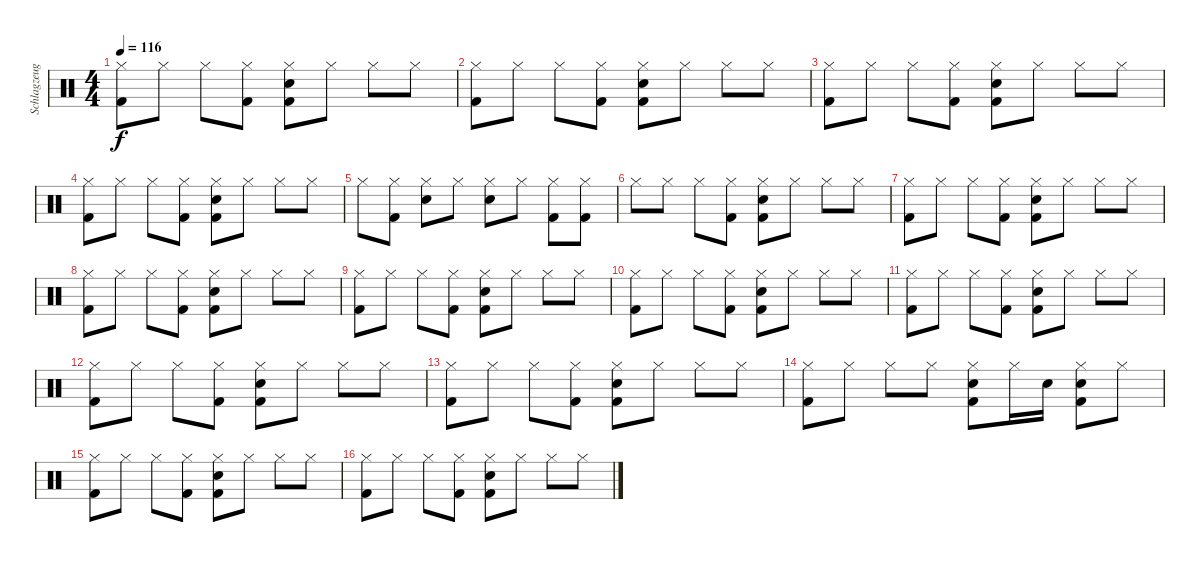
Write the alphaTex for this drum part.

\track ("Schlagzeug" "Schlagzeug") {instrument percussion}
\staff {score}
\articulation defaults
\ts (4 4)
\tempo 116
\clef neutral
\ks c
("Hi-Hat (closed)" "Kick (hit) 2").8{dy f} "Hi-Hat (closed)".8 "Hi-Hat (closed)".8 ("Hi-Hat (closed)" "Kick (hit) 2").8 ("Snare (hit) 2" "Hi-Hat (closed)" "Kick (hit) 2").8 "Hi-Hat (closed)".8 "Hi-Hat (closed)".8 "Hi-Hat (closed)".8 |
("Hi-Hat (closed)" "Kick (hit) 2").8 "Hi-Hat (closed)".8 "Hi-Hat (closed)".8 ("Hi-Hat (closed)" "Kick (hit) 2").8 ("Snare (hit) 2" "Hi-Hat (closed)" "Kick (hit) 2").8 "Hi-Hat (closed)".8 "Hi-Hat (closed)".8 "Hi-Hat (closed)".8 |
("Hi-Hat (closed)" "Kick (hit) 2").8 "Hi-Hat (closed)".8 "Hi-Hat (closed)".8 ("Hi-Hat (closed)" "Kick (hit) 2").8 ("Snare (hit) 2" "Hi-Hat (closed)" "Kick (hit) 2").8 "Hi-Hat (closed)".8 "Hi-Hat (closed)".8 "Hi-Hat (closed)".8 |
("Hi-Hat (closed)" "Kick (hit) 2").8 "Hi-Hat (closed)".8 "Hi-Hat (closed)".8 ("Hi-Hat (closed)" "Kick (hit) 2").8 ("Snare (hit) 2" "Hi-Hat (closed)" "Kick (hit) 2").8 "Hi-Hat (closed)".8 "Hi-Hat (closed)".8 "Hi-Hat (closed)".8 |
"Hi-Hat (closed)".8 ("Hi-Hat (closed)" "Kick (hit) 2").8 ("Snare (hit) 2" "Hi-Hat (closed)").8 "Hi-Hat (closed)".8 ("Snare (hit) 2" "Hi-Hat (closed)").8 "Hi-Hat (closed)".8 ("Hi-Hat (closed)" "Kick (hit) 2").8 ("Hi-Hat (closed)" "Kick (hit) 2").8 |
"Hi-Hat (closed)".8 "Hi-Hat (closed)".8 "Hi-Hat (closed)".8 ("Hi-Hat (closed)" "Kick (hit) 2").8 ("Snare (hit) 2" "Hi-Hat (closed)" "Kick (hit) 2").8 "Hi-Hat (closed)".8 "Hi-Hat (closed)".8 "Hi-Hat (closed)".8 |
("Hi-Hat (closed)" "Kick (hit) 2").8 "Hi-Hat (closed)".8 "Hi-Hat (closed)".8 ("Hi-Hat (closed)" "Kick (hit) 2").8 ("Snare (hit) 2" "Hi-Hat (closed)" "Kick (hit) 2").8 "Hi-Hat (closed)".8 "Hi-Hat (closed)".8 "Hi-Hat (closed)".8 |
("Hi-Hat (closed)" "Kick (hit) 2").8 "Hi-Hat (closed)".8 "Hi-Hat (closed)".8 ("Hi-Hat (closed)" "Kick (hit) 2").8 ("Snare (hit) 2" "Hi-Hat (closed)" "Kick (hit) 2").8 "Hi-Hat (closed)".8 "Hi-Hat (closed)".8 "Hi-Hat (closed)".8 |
("Hi-Hat (closed)" "Kick (hit) 2").8 "Hi-Hat (closed)".8 "Hi-Hat (closed)".8 ("Hi-Hat (closed)" "Kick (hit) 2").8 ("Snare (hit) 2" "Hi-Hat (closed)" "Kick (hit) 2").8 "Hi-Hat (closed)".8 "Hi-Hat (closed)".8 "Hi-Hat (closed)".8 |
("Hi-Hat (closed)" "Kick (hit) 2").8 "Hi-Hat (closed)".8 "Hi-Hat (closed)".8 ("Hi-Hat (closed)" "Kick (hit) 2").8 ("Snare (hit) 2" "Hi-Hat (closed)" "Kick (hit) 2").8 "Hi-Hat (closed)".8 "Hi-Hat (closed)".8 "Hi-Hat (closed)".8 |
("Hi-Hat (closed)" "Kick (hit) 2").8 "Hi-Hat (closed)".8 "Hi-Hat (closed)".8 ("Hi-Hat (closed)" "Kick (hit) 2").8 ("Snare (hit) 2" "Hi-Hat (closed)" "Kick (hit) 2").8 "Hi-Hat (closed)".8 "Hi-Hat (closed)".8 "Hi-Hat (closed)".8 |
("Hi-Hat (closed)" "Kick (hit) 2").8 "Hi-Hat (closed)".8 "Hi-Hat (closed)".8 ("Hi-Hat (closed)" "Kick (hit) 2").8 ("Snare (hit) 2" "Hi-Hat (closed)" "Kick (hit) 2").8 "Hi-Hat (closed)".8 "Hi-Hat (closed)".8 "Hi-Hat (closed)".8 |
("Hi-Hat (closed)" "Kick (hit) 2").8 "Hi-Hat (closed)".8 "Hi-Hat (closed)".8 ("Hi-Hat (closed)" "Kick (hit) 2").8 ("Snare (hit) 2" "Hi-Hat (closed)" "Kick (hit) 2").8 "Hi-Hat (closed)".8 "Hi-Hat (closed)".8 "Hi-Hat (closed)".8 |
("Hi-Hat (closed)" "Kick (hit) 2").8 "Hi-Hat (closed)".8 "Hi-Hat (closed)".8 "Hi-Hat (closed)".8 ("Snare (hit) 2" "Hi-Hat (closed)" "Kick (hit) 2").8 "Hi-Hat (closed)".16 "Snare (hit) 2".16 ("Snare (hit) 2" "Hi-Hat (closed)" "Kick (hit) 2").8 "Hi-Hat (closed)".8 |
("Hi-Hat (closed)" "Kick (hit) 2").8 "Hi-Hat (closed)".8 "Hi-Hat (closed)".8 ("Hi-Hat (closed)" "Kick (hit) 2").8 ("Snare (hit) 2" "Hi-Hat (closed)" "Kick (hit) 2").8 "Hi-Hat (closed)".8 "Hi-Hat (closed)".8 "Hi-Hat (closed)".8 |
("Hi-Hat (closed)" "Kick (hit) 2").8 "Hi-Hat (closed)".8 "Hi-Hat (closed)".8 ("Hi-Hat (closed)" "Kick (hit) 2").8 ("Snare (hit) 2" "Hi-Hat (closed)" "Kick (hit) 2").8 "Hi-Hat (closed)".8 "Hi-Hat (closed)".8 "Hi-Hat (closed)".8
